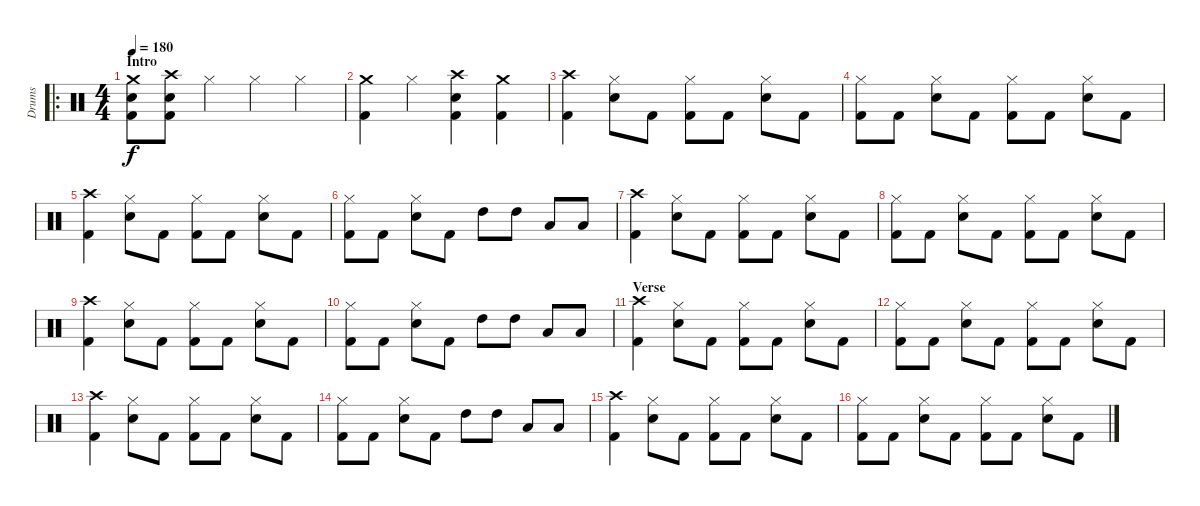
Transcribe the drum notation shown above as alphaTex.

\track ("Drums" "Drums") {instrument percussion}
\staff {score}
\articulation defaults
\ro
\ts (4 4)
\section ("" "Intro")
\tempo 180
\clef neutral
\ks c
("Crash medium (hit)" "Electric Snare (hit)" "Kick (hit) 2").8{dy f} ("Crash high (hit)" "Electric Snare (hit)" "Kick (hit) 2").8 "Hi-Hat (closed)".4 "Hi-Hat (closed)".4 "Hi-Hat (closed)".4 |
("Crash medium (hit)" "Kick (hit) 2").4 "Hi-Hat (closed)".4 ("Crash high (hit)" "Electric Snare (hit)" "Kick (hit) 2").4 ("Crash medium (hit)" "Kick (hit) 2").4 |
("Crash high (hit)" "Kick (hit) 2").4 ("Hi-Hat (closed)" "Electric Snare (hit)").8 "Kick (hit) 2".8 ("Hi-Hat (closed)" "Kick (hit) 2").8 "Kick (hit) 2".8 ("Hi-Hat (closed)" "Electric Snare (hit)").8 "Kick (hit) 2".8 |
("Hi-Hat (closed)" "Kick (hit) 2").8 "Kick (hit) 2".8 ("Hi-Hat (closed)" "Electric Snare (hit)").8 "Kick (hit) 2".8 ("Hi-Hat (closed)" "Kick (hit) 2").8 "Kick (hit) 2".8 ("Hi-Hat (closed)" "Electric Snare (hit)").8 "Kick (hit) 2".8 |
("Crash high (hit)" "Kick (hit) 2").4 ("Hi-Hat (closed)" "Electric Snare (hit)").8 "Kick (hit) 2".8 ("Hi-Hat (closed)" "Kick (hit) 2").8 "Kick (hit) 2".8 ("Hi-Hat (closed)" "Electric Snare (hit)").8 "Kick (hit) 2".8 |
("Hi-Hat (closed)" "Kick (hit) 2").8 "Kick (hit) 2".8 ("Hi-Hat (closed)" "Electric Snare (hit)").8 "Kick (hit) 2".8 "High Tom (hit)".8 "High Tom (hit)".8 "Low Tom (hit)".8 "Low Tom (hit)".8 |
("Crash high (hit)" "Kick (hit) 2").4 ("Hi-Hat (closed)" "Electric Snare (hit)").8 "Kick (hit) 2".8 ("Hi-Hat (closed)" "Kick (hit) 2").8 "Kick (hit) 2".8 ("Hi-Hat (closed)" "Electric Snare (hit)").8 "Kick (hit) 2".8 |
("Hi-Hat (closed)" "Kick (hit) 2").8 "Kick (hit) 2".8 ("Hi-Hat (closed)" "Electric Snare (hit)").8 "Kick (hit) 2".8 ("Hi-Hat (closed)" "Kick (hit) 2").8 "Kick (hit) 2".8 ("Hi-Hat (closed)" "Electric Snare (hit)").8 "Kick (hit) 2".8 |
("Crash high (hit)" "Kick (hit) 2").4 ("Hi-Hat (closed)" "Electric Snare (hit)").8 "Kick (hit) 2".8 ("Hi-Hat (closed)" "Kick (hit) 2").8 "Kick (hit) 2".8 ("Hi-Hat (closed)" "Electric Snare (hit)").8 "Kick (hit) 2".8 |
("Hi-Hat (closed)" "Kick (hit) 2").8 "Kick (hit) 2".8 ("Hi-Hat (closed)" "Electric Snare (hit)").8 "Kick (hit) 2".8 "High Tom (hit)".8 "High Tom (hit)".8 "Low Tom (hit)".8 "Low Tom (hit)".8 |
\section ("" "Verse")
("Crash high (hit)" "Kick (hit) 2").4 ("Hi-Hat (closed)" "Electric Snare (hit)").8 "Kick (hit) 2".8 ("Hi-Hat (closed)" "Kick (hit) 2").8 "Kick (hit) 2".8 ("Hi-Hat (closed)" "Electric Snare (hit)").8 "Kick (hit) 2".8 |
("Hi-Hat (closed)" "Kick (hit) 2").8 "Kick (hit) 2".8 ("Hi-Hat (closed)" "Electric Snare (hit)").8 "Kick (hit) 2".8 ("Hi-Hat (closed)" "Kick (hit) 2").8 "Kick (hit) 2".8 ("Hi-Hat (closed)" "Electric Snare (hit)").8 "Kick (hit) 2".8 |
("Crash high (hit)" "Kick (hit) 2").4 ("Hi-Hat (closed)" "Electric Snare (hit)").8 "Kick (hit) 2".8 ("Hi-Hat (closed)" "Kick (hit) 2").8 "Kick (hit) 2".8 ("Hi-Hat (closed)" "Electric Snare (hit)").8 "Kick (hit) 2".8 |
("Hi-Hat (closed)" "Kick (hit) 2").8 "Kick (hit) 2".8 ("Hi-Hat (closed)" "Electric Snare (hit)").8 "Kick (hit) 2".8 "High Tom (hit)".8 "High Tom (hit)".8 "Low Tom (hit)".8 "Low Tom (hit)".8 |
("Crash high (hit)" "Kick (hit) 2").4 ("Hi-Hat (closed)" "Electric Snare (hit)").8 "Kick (hit) 2".8 ("Hi-Hat (closed)" "Kick (hit) 2").8 "Kick (hit) 2".8 ("Hi-Hat (closed)" "Electric Snare (hit)").8 "Kick (hit) 2".8 |
("Hi-Hat (closed)" "Kick (hit) 2").8 "Kick (hit) 2".8 ("Hi-Hat (closed)" "Electric Snare (hit)").8 "Kick (hit) 2".8 ("Hi-Hat (closed)" "Kick (hit) 2").8 "Kick (hit) 2".8 ("Hi-Hat (closed)" "Electric Snare (hit)").8 "Kick (hit) 2".8
